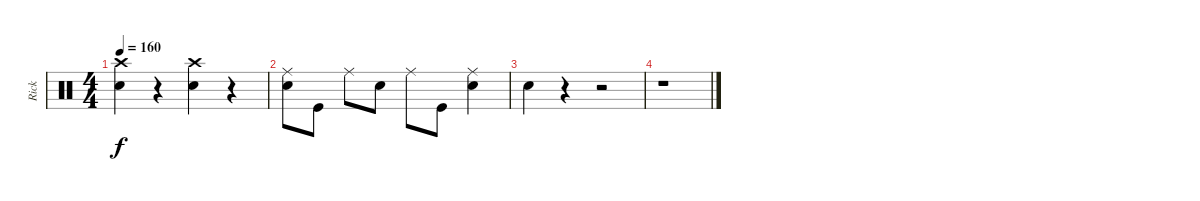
\track ("Rick" "Rick") {instrument percussion}
\staff {score}
\articulation defaults
\ts (4 4)
\tempo 160
\clef neutral
\ks c
("Crash high (hit)" "Snare (hit) 2").4{dy f} r.4 ("Crash high (hit)" "Snare (hit) 2").4 r.4 |
("Ride (middle)" "Snare (hit) 2").8 "Kick (hit)".8 "Ride (middle)".8 "Snare (hit) 2".8 "Ride (middle)".8 "Kick (hit)".8 ("Ride (middle)" "Snare (hit) 2").4 |
"Snare (hit) 2".4 r.4 r.2 |
r.1
